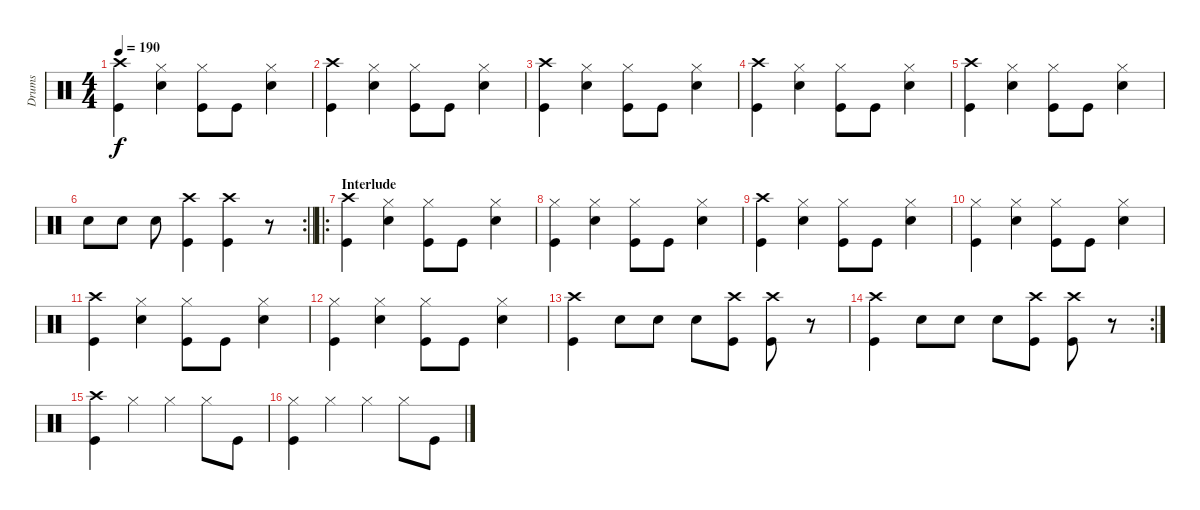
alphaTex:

\track ("Drums" "Drums") {instrument percussion}
\staff {score}
\articulation defaults
\ts (4 4)
\tempo 190
\clef neutral
\ks c
("Crash high (hit)" "Kick (hit)").4{dy f} ("Hi-Hat (closed)" "Snare (hit) 2").4 ("Hi-Hat (closed)" "Kick (hit)").8 "Kick (hit)".8 ("Hi-Hat (closed)" "Snare (hit) 2").4 |
("Crash high (hit)" "Kick (hit)").4 ("Hi-Hat (closed)" "Snare (hit) 2").4 ("Hi-Hat (closed)" "Kick (hit)").8 "Kick (hit)".8 ("Hi-Hat (closed)" "Snare (hit) 2").4 |
("Crash high (hit)" "Kick (hit)").4 ("Hi-Hat (closed)" "Snare (hit) 2").4 ("Hi-Hat (closed)" "Kick (hit)").8 "Kick (hit)".8 ("Hi-Hat (closed)" "Snare (hit) 2").4 |
("Crash high (hit)" "Kick (hit)").4 ("Hi-Hat (closed)" "Snare (hit) 2").4 ("Hi-Hat (closed)" "Kick (hit)").8 "Kick (hit)".8 ("Hi-Hat (closed)" "Snare (hit) 2").4 |
("Crash high (hit)" "Kick (hit)").4 ("Hi-Hat (closed)" "Snare (hit) 2").4 ("Hi-Hat (closed)" "Kick (hit)").8 "Kick (hit)".8 ("Hi-Hat (closed)" "Snare (hit) 2").4 |
\rc 2
\barLineRight lightlight "Snare (hit) 2".8 "Snare (hit) 2".8 "Snare (hit) 2".8
("Crash high (hit)" "Kick (hit)").4 ("Crash high (hit)" "Kick (hit)").4 r.8 |
\ro
\section ("" "Interlude")
("Crash high (hit)" "Kick (hit)").4 ("Hi-Hat (closed)" "Snare (hit) 2").4 ("Hi-Hat (closed)" "Kick (hit)").8 "Kick (hit)".8 ("Hi-Hat (closed)" "Snare (hit) 2").4 |
("Hi-Hat (closed)" "Kick (hit)").4 ("Hi-Hat (closed)" "Snare (hit) 2").4 ("Hi-Hat (closed)" "Kick (hit)").8 "Kick (hit)".8 ("Hi-Hat (closed)" "Snare (hit) 2").4 |
("Crash high (hit)" "Kick (hit)").4 ("Hi-Hat (closed)" "Snare (hit) 2").4 ("Hi-Hat (closed)" "Kick (hit)").8 "Kick (hit)".8 ("Hi-Hat (closed)" "Snare (hit) 2").4 |
("Hi-Hat (closed)" "Kick (hit)").4 ("Hi-Hat (closed)" "Snare (hit) 2").4 ("Hi-Hat (closed)" "Kick (hit)").8 "Kick (hit)".8 ("Hi-Hat (closed)" "Snare (hit) 2").4 |
("Crash high (hit)" "Kick (hit)").4 ("Hi-Hat (closed)" "Snare (hit) 2").4 ("Hi-Hat (closed)" "Kick (hit)").8 "Kick (hit)".8 ("Hi-Hat (closed)" "Snare (hit) 2").4 |
("Hi-Hat (closed)" "Kick (hit)").4 ("Hi-Hat (closed)" "Snare (hit) 2").4 ("Hi-Hat (closed)" "Kick (hit)").8 "Kick (hit)".8 ("Hi-Hat (closed)" "Snare (hit) 2").4 |
("Crash high (hit)" "Kick (hit)").4 "Snare (hit) 2".8 "Snare (hit) 2".8 "Snare (hit) 2".8 ("Crash high (hit)" "Kick (hit)").8 ("Crash high (hit)" "Kick (hit)").8 r.8 |
\rc 2
("Crash high (hit)" "Kick (hit)").4 "Snare (hit) 2".8 "Snare (hit) 2".8 "Snare (hit) 2".8 ("Crash high (hit)" "Kick (hit)").8 ("Crash high (hit)" "Kick (hit)").8 r.8 |
("Crash high (hit)" "Kick (hit)").4 "Hi-Hat (closed)".4 "Hi-Hat (closed)".4 "Hi-Hat (closed)".8 "Kick (hit)".8 |
("Hi-Hat (closed)" "Kick (hit)").4 "Hi-Hat (closed)".4 "Hi-Hat (closed)".4 "Hi-Hat (closed)".8 "Kick (hit)".8
